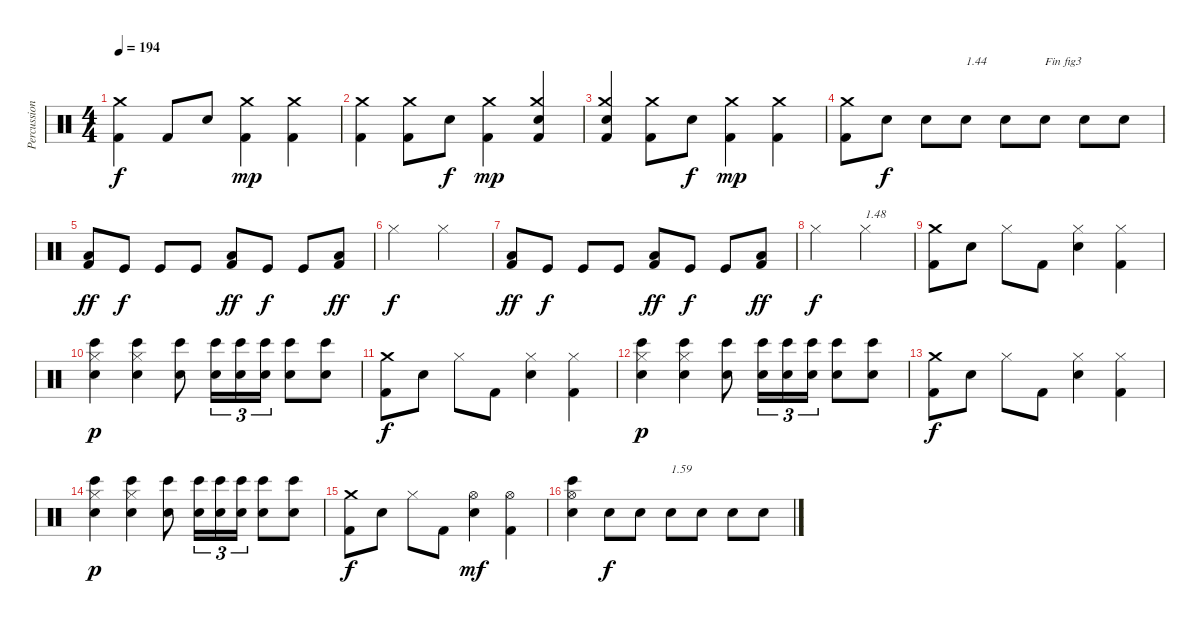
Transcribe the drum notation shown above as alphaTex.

\track ("Percussions" "Percussion") {instrument percussion}
\staff {score}
\articulation defaults
\ts (4 4)
\tempo 194
\clef neutral
\ks c
("Kick (hit) 2" "Crash medium (hit)").4{dy f} "Kick (hit) 2".8 "Electric Snare (hit)".8 ("Kick (hit) 2" "Crash medium (hit)").4{dy mp} ("Kick (hit) 2" "Crash medium (hit)").4 |
("Kick (hit) 2" "Crash medium (hit)").4 ("Kick (hit) 2" "Crash medium (hit)").8 "Electric Snare (hit)".8{dy f} ("Kick (hit) 2" "Crash medium (hit)").4{dy mp} ("Kick (hit) 2" "Electric Snare (hit)" "Crash medium (hit)").4 |
("Kick (hit) 2" "Electric Snare (hit)" "Crash medium (hit)").4 ("Kick (hit) 2" "Crash medium (hit)").8 "Electric Snare (hit)".8{dy f} ("Kick (hit) 2" "Crash medium (hit)").4{dy mp} ("Kick (hit) 2" "Crash medium (hit)").4 |
("Kick (hit) 2" "Crash medium (hit)").8 "Electric Snare (hit)".8{dy f} "Electric Snare (hit)".8 "Electric Snare (hit)".8{txt "1.44"} "Electric Snare (hit)".8 "Electric Snare (hit)".8{txt "Fin fig3"} "Electric Snare (hit)".8 "Electric Snare (hit)".8 |
("Kick (hit) 2" "Low Floor Tom (hit)").8{dy ff} "Kick (hit)".8{dy f} "Kick (hit)".8 "Kick (hit)".8 ("Kick (hit) 2" "Low Floor Tom (hit)").8{dy ff} "Kick (hit)".8{dy f} "Kick (hit)".8 ("Kick (hit) 2" "Low Floor Tom (hit)").8{dy ff} |
"Hi-Hat (closed)".2{dy f} "Hi-Hat (closed)".2 |
("Kick (hit) 2" "Low Floor Tom (hit)").8{dy ff} "Kick (hit)".8{dy f} "Kick (hit)".8 "Kick (hit)".8 ("Kick (hit) 2" "Low Floor Tom (hit)").8{dy ff} "Kick (hit)".8{dy f} "Kick (hit)".8 ("Kick (hit) 2" "Low Floor Tom (hit)").8{dy ff} |
"Hi-Hat (closed)".2{dy f} "Hi-Hat (closed)".2{txt "1.48"} |
("Kick (hit) 2" "Crash medium (hit)").8 "Electric Snare (hit)".8 "Hi-Hat (closed)".8 "Kick (hit) 2".8 ("Electric Snare (hit)" "Hi-Hat (closed)").4 ("Kick (hit) 2" "Hi-Hat (closed)").4 |
("Bongo High (hit)" "Electric Snare (hit)" "Hi-Hat (closed)").4{dy p} ("Bongo High (hit)" "Electric Snare (hit)" "Hi-Hat (closed)").4 ("Bongo High (hit)" "Electric Snare (hit)").8 ("Bongo High (hit)" "Electric Snare (hit)").16{tu (3 2)} ("Bongo High (hit)" "Electric Snare (hit)").16{tu (3 2)} ("Bongo High (hit)" "Electric Snare (hit)").16{tu (3 2)} ("Bongo High (hit)" "Electric Snare (hit)").8 ("Bongo High (hit)" "Electric Snare (hit)").8 |
("Kick (hit) 2" "Crash medium (hit)").8{dy f} "Electric Snare (hit)".8 "Hi-Hat (closed)".8 "Kick (hit) 2".8 ("Electric Snare (hit)" "Hi-Hat (closed)").4 ("Kick (hit) 2" "Hi-Hat (closed)").4 |
("Bongo High (hit)" "Electric Snare (hit)" "Hi-Hat (closed)").4{dy p} ("Bongo High (hit)" "Electric Snare (hit)" "Hi-Hat (closed)").4 ("Bongo High (hit)" "Electric Snare (hit)").8 ("Bongo High (hit)" "Electric Snare (hit)").16{tu (3 2)} ("Bongo High (hit)" "Electric Snare (hit)").16{tu (3 2)} ("Bongo High (hit)" "Electric Snare (hit)").16{tu (3 2)} ("Bongo High (hit)" "Electric Snare (hit)").8 ("Bongo High (hit)" "Electric Snare (hit)").8 |
("Kick (hit) 2" "Crash medium (hit)").8{dy f} "Electric Snare (hit)".8 "Hi-Hat (closed)".8 "Kick (hit) 2".8 ("Electric Snare (hit)" "Hi-Hat (closed)").4 ("Kick (hit) 2" "Hi-Hat (closed)").4 |
("Bongo High (hit)" "Electric Snare (hit)" "Hi-Hat (closed)").4{dy p} ("Bongo High (hit)" "Electric Snare (hit)" "Hi-Hat (closed)").4 ("Bongo High (hit)" "Electric Snare (hit)").8 ("Bongo High (hit)" "Electric Snare (hit)").16{tu (3 2)} ("Bongo High (hit)" "Electric Snare (hit)").16{tu (3 2)} ("Bongo High (hit)" "Electric Snare (hit)").16{tu (3 2)} ("Bongo High (hit)" "Electric Snare (hit)").8 ("Bongo High (hit)" "Electric Snare (hit)").8 |
("Kick (hit) 2" "Crash medium (hit)").8{dy f} "Electric Snare (hit)".8 "Hi-Hat (closed)".8 "Kick (hit) 2".8 ("Electric Snare (hit)" "Hi-Hat (open)").4{dy mf} ("Kick (hit) 2" "Hi-Hat (open)").4 |
("Bongo High (hit)" "Electric Snare (hit)" "Hi-Hat (open)").4 "Electric Snare (hit)".8{dy f} "Electric Snare (hit)".8 "Electric Snare (hit)".8{txt "1.59"} "Electric Snare (hit)".8 "Electric Snare (hit)".8 "Electric Snare (hit)".8
